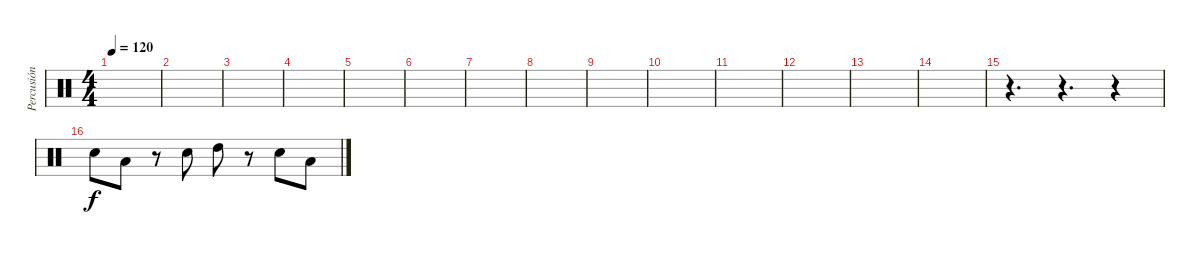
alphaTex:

\track ("Percusión" "Percusión") {instrument percussion}
\staff {score}
\articulation defaults
\ts (4 4)
\tempo 120
\clef neutral
\ks c
|
|
|
|
|
|
|
|
|
|
|
|
|
|
r.4{d} r.4{d} r.4 |
"Snare (hit) 2".8 "Low Tom (hit)".8 r.8 "Snare (hit) 2".8 "High Tom (hit)".8 r.8 "Snare (hit) 2".8 "Low Floor Tom (hit)".8
